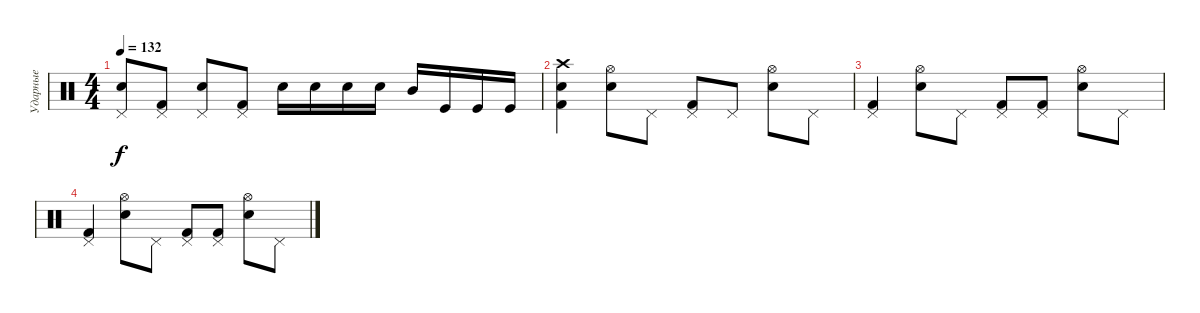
\track ("Ударные" "Ударные") {instrument percussion}
\staff {score}
\articulation defaults
\ts (4 4)
\tempo 132
\clef neutral
\ks c
("Pedal Hi-Hat (hit)" "Electric Snare (hit)").8{dy f} ("Pedal Hi-Hat (hit)" "Kick (hit) 2").8 ("Pedal Hi-Hat (hit)" "Electric Snare (hit)").8 ("Kick (hit) 2" "Pedal Hi-Hat (hit)").8 "Electric Snare (hit)".16 "Snare (hit) 2".16 "Snare (hit) 2".16 "Snare (hit) 2".16 "Mid Tom (hit)".16 "Kick (hit)".16 "Kick (hit)".16 "Kick (hit)".16 |
("Electric Snare (hit)" "Kick (hit) 2" "Crash high (hit)").4 ("Hi-Hat (open)" "Electric Snare (hit)").8 "Pedal Hi-Hat (hit)".8 ("Kick (hit) 2" "Pedal Hi-Hat (hit)").8 "Pedal Hi-Hat (hit)".8 ("Electric Snare (hit)" "Hi-Hat (open)").8 "Pedal Hi-Hat (hit)".8 |
("Kick (hit) 2" "Pedal Hi-Hat (hit)").4 ("Hi-Hat (open)" "Electric Snare (hit)").8 "Pedal Hi-Hat (hit)".8 ("Kick (hit) 2" "Pedal Hi-Hat (hit)").8 ("Kick (hit) 2" "Pedal Hi-Hat (hit)").8 ("Electric Snare (hit)" "Hi-Hat (open)").8 "Pedal Hi-Hat (hit)".8 |
("Kick (hit) 2" "Pedal Hi-Hat (hit)").4 ("Hi-Hat (open)" "Electric Snare (hit)").8 "Pedal Hi-Hat (hit)".8 ("Kick (hit) 2" "Pedal Hi-Hat (hit)").8 ("Kick (hit) 2" "Pedal Hi-Hat (hit)").8 ("Electric Snare (hit)" "Hi-Hat (open)").8 "Pedal Hi-Hat (hit)".8
